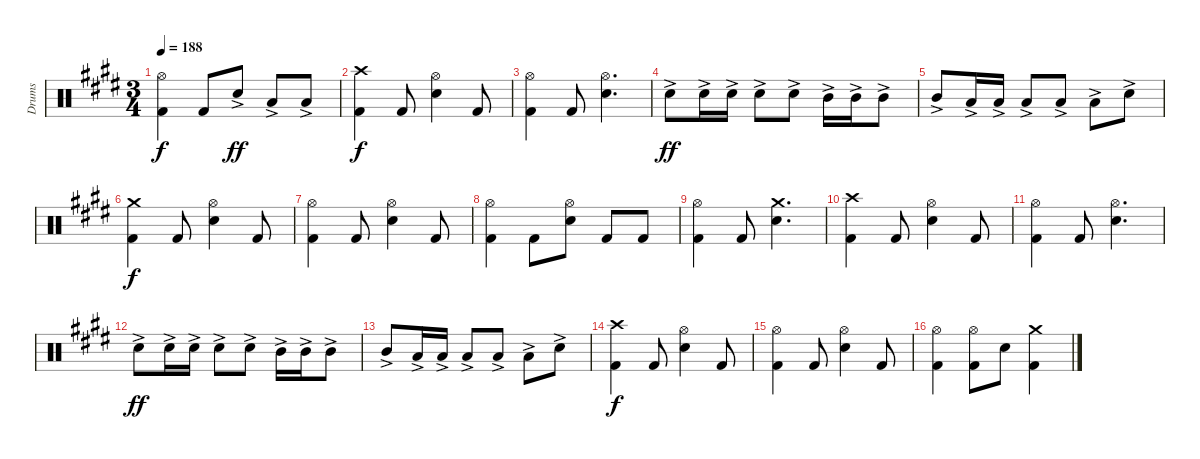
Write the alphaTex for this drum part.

\track ("Drums" "Drums") {instrument percussion}
\staff {score}
\articulation defaults
\ts (3 4)
\tempo 188
\clef neutral
\ks e
("Hi-Hat (open)" "Kick (hit) 2").4{dy f} "Kick (hit) 2".8 "Electric Snare (hit)"{ac}.8{dy ff} "Low Tom (hit)"{ac}.8 "Low Tom (hit)"{ac}.8 |
("Crash high (hit)" "Kick (hit) 2").4{dy f} "Kick (hit) 2".8 ("Hi-Hat (open)" "Electric Snare (hit)").4 "Kick (hit) 2".8 |
("Hi-Hat (open)" "Kick (hit) 2").4 "Kick (hit) 2".8 ("Hi-Hat (open)" "Electric Snare (hit)").4{d} |
"Electric Snare (hit)"{ac}.8{dy ff} "Electric Snare (hit)"{ac}.16 "Electric Snare (hit)"{ac}.16 "Electric Snare (hit)"{ac}.8 "Electric Snare (hit)"{ac}.8 "Mid Tom (hit)"{ac}.16 "Mid Tom (hit)"{ac}.16 "Mid Tom (hit)"{ac}.8 |
"Mid Tom (hit)"{ac}.8 "Low Tom (hit)"{ac}.16 "Low Tom (hit)"{ac}.16 "Low Tom (hit)"{ac}.8 "Low Tom (hit)"{ac}.8 "Low Floor Tom (hit)"{ac}.8 "Electric Snare (hit)"{ac}.8 |
("Crash medium (hit)" "Kick (hit) 2").4{dy f} "Kick (hit) 2".8 ("Hi-Hat (open)" "Electric Snare (hit)").4 "Kick (hit) 2".8 |
("Hi-Hat (open)" "Kick (hit) 2").4 "Kick (hit) 2".8 ("Hi-Hat (open)" "Electric Snare (hit)").4 "Kick (hit) 2".8 |
("Hi-Hat (open)" "Kick (hit) 2").4 "Kick (hit) 2".8 ("Hi-Hat (open)" "Electric Snare (hit)").8 "Kick (hit) 2".8 "Kick (hit) 2".8 |
("Hi-Hat (open)" "Kick (hit) 2").4 "Kick (hit) 2".8 ("Crash medium (hit)" "Electric Snare (hit)").4{d} |
("Crash high (hit)" "Kick (hit) 2").4 "Kick (hit) 2".8 ("Hi-Hat (open)" "Electric Snare (hit)").4 "Kick (hit) 2".8 |
("Hi-Hat (open)" "Kick (hit) 2").4 "Kick (hit) 2".8 ("Hi-Hat (open)" "Electric Snare (hit)").4{d} |
"Electric Snare (hit)"{ac}.8{dy ff} "Electric Snare (hit)"{ac}.16 "Electric Snare (hit)"{ac}.16 "Electric Snare (hit)"{ac}.8 "Electric Snare (hit)"{ac}.8 "Mid Tom (hit)"{ac}.16 "Mid Tom (hit)"{ac}.16 "Mid Tom (hit)"{ac}.8 |
"Mid Tom (hit)"{ac}.8 "Low Tom (hit)"{ac}.16 "Low Tom (hit)"{ac}.16 "Low Tom (hit)"{ac}.8 "Low Tom (hit)"{ac}.8 "Low Floor Tom (hit)"{ac}.8 "Electric Snare (hit)"{ac}.8 |
("Crash high (hit)" "Kick (hit) 2").4{dy f} "Kick (hit) 2".8 ("Hi-Hat (open)" "Electric Snare (hit)").4 "Kick (hit) 2".8 |
("Hi-Hat (open)" "Kick (hit) 2").4 "Kick (hit) 2".8 ("Hi-Hat (open)" "Electric Snare (hit)").4 "Kick (hit) 2".8 |
("Hi-Hat (open)" "Kick (hit) 2").4 ("Hi-Hat (open)" "Kick (hit) 2").8 "Electric Snare (hit)".8 ("Crash medium (hit)" "Kick (hit) 2").4
